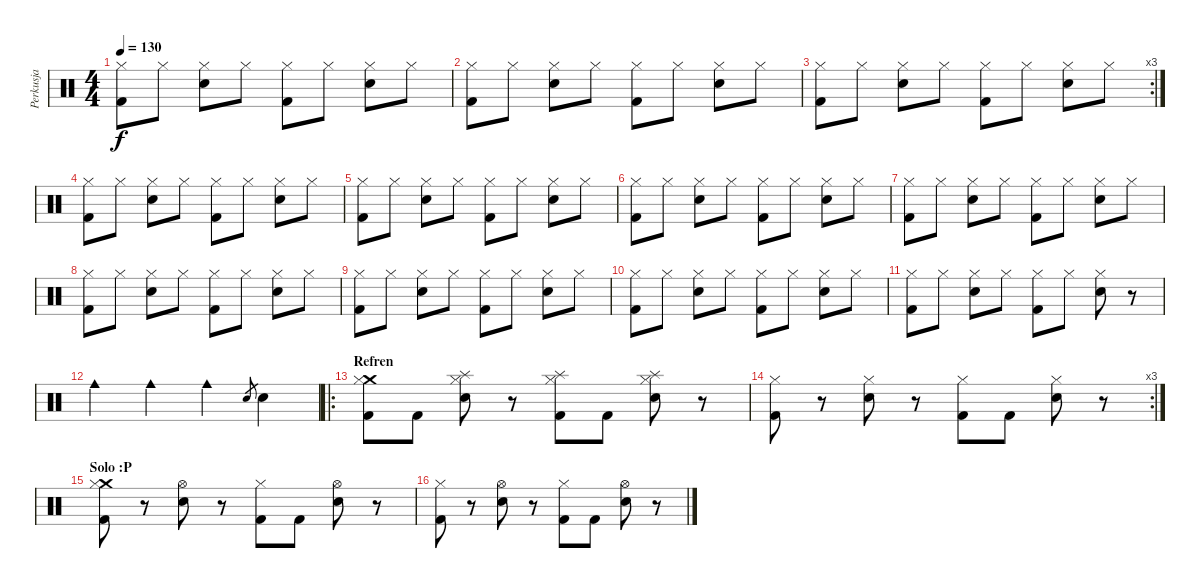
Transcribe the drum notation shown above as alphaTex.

\track ("Perkusja" "Perkusja") {instrument percussion}
\staff {score}
\articulation defaults
\ts (4 4)
\tempo 130
\clef neutral
\ks c
("Hi-Hat (closed)" "Kick (hit) 2").8{dy f} "Hi-Hat (closed)".8 ("Hi-Hat (closed)" "Electric Snare (hit)").8 "Hi-Hat (closed)".8 ("Hi-Hat (closed)" "Kick (hit) 2").8 "Hi-Hat (closed)".8 ("Hi-Hat (closed)" "Electric Snare (hit)").8 "Hi-Hat (closed)".8 |
("Hi-Hat (closed)" "Kick (hit) 2").8 "Hi-Hat (closed)".8 ("Hi-Hat (closed)" "Electric Snare (hit)").8 "Hi-Hat (closed)".8 ("Hi-Hat (closed)" "Kick (hit) 2").8 "Hi-Hat (closed)".8 ("Hi-Hat (closed)" "Electric Snare (hit)").8 "Hi-Hat (closed)".8 |
\rc 3
("Hi-Hat (closed)" "Kick (hit) 2").8 "Hi-Hat (closed)".8 ("Hi-Hat (closed)" "Electric Snare (hit)").8 "Hi-Hat (closed)".8 ("Hi-Hat (closed)" "Kick (hit) 2").8 "Hi-Hat (closed)".8 ("Hi-Hat (closed)" "Electric Snare (hit)").8 "Hi-Hat (closed)".8 |
("Hi-Hat (closed)" "Kick (hit) 2").8 "Hi-Hat (closed)".8 ("Hi-Hat (closed)" "Electric Snare (hit)").8 "Hi-Hat (closed)".8 ("Hi-Hat (closed)" "Kick (hit) 2").8 "Hi-Hat (closed)".8 ("Hi-Hat (closed)" "Electric Snare (hit)").8 "Hi-Hat (closed)".8 |
("Hi-Hat (closed)" "Kick (hit) 2").8 "Hi-Hat (closed)".8 ("Hi-Hat (closed)" "Electric Snare (hit)").8 "Hi-Hat (closed)".8 ("Hi-Hat (closed)" "Kick (hit) 2").8 "Hi-Hat (closed)".8 ("Hi-Hat (closed)" "Electric Snare (hit)").8 "Hi-Hat (closed)".8 |
("Hi-Hat (closed)" "Kick (hit) 2").8 "Hi-Hat (closed)".8 ("Hi-Hat (closed)" "Electric Snare (hit)").8 "Hi-Hat (closed)".8 ("Hi-Hat (closed)" "Kick (hit) 2").8 "Hi-Hat (closed)".8 ("Hi-Hat (closed)" "Electric Snare (hit)").8 "Hi-Hat (closed)".8 |
("Hi-Hat (closed)" "Kick (hit) 2").8 "Hi-Hat (closed)".8 ("Hi-Hat (closed)" "Electric Snare (hit)").8 "Hi-Hat (closed)".8 ("Hi-Hat (closed)" "Kick (hit) 2").8 "Hi-Hat (closed)".8 ("Hi-Hat (closed)" "Electric Snare (hit)").8 "Hi-Hat (closed)".8 |
("Hi-Hat (closed)" "Kick (hit) 2").8 "Hi-Hat (closed)".8 ("Hi-Hat (closed)" "Electric Snare (hit)").8 "Hi-Hat (closed)".8 ("Hi-Hat (closed)" "Kick (hit) 2").8 "Hi-Hat (closed)".8 ("Hi-Hat (closed)" "Electric Snare (hit)").8 "Hi-Hat (closed)".8 |
("Hi-Hat (closed)" "Kick (hit) 2").8 "Hi-Hat (closed)".8 ("Hi-Hat (closed)" "Electric Snare (hit)").8 "Hi-Hat (closed)".8 ("Hi-Hat (closed)" "Kick (hit) 2").8 "Hi-Hat (closed)".8 ("Hi-Hat (closed)" "Electric Snare (hit)").8 "Hi-Hat (closed)".8 |
("Hi-Hat (closed)" "Kick (hit) 2").8 "Hi-Hat (closed)".8 ("Hi-Hat (closed)" "Electric Snare (hit)").8 "Hi-Hat (closed)".8 ("Hi-Hat (closed)" "Kick (hit) 2").8 "Hi-Hat (closed)".8 ("Hi-Hat (closed)" "Electric Snare (hit)").8 "Hi-Hat (closed)".8 |
("Hi-Hat (closed)" "Kick (hit) 2").8 "Hi-Hat (closed)".8 ("Hi-Hat (closed)" "Electric Snare (hit)").8 "Hi-Hat (closed)".8 ("Hi-Hat (closed)" "Kick (hit) 2").8 "Hi-Hat (closed)".8 ("Hi-Hat (closed)" "Electric Snare (hit)").8 r.8 |
"Cowbell medium (hit)".4 "Cowbell medium (hit)".4 "Cowbell medium (hit)".4 "Electric Snare (hit)".8{gr} "Electric Snare (hit)".4 |
\ro
\section ("" "Refren")
("Crash medium (hit)" "Hi-Hat (closed)" "Kick (hit) 2").8 "Kick (hit) 2".8 ("Splash (hit)" "Hi-Hat (closed)" "Electric Snare (hit)").8 r.8 ("Splash (hit)" "Hi-Hat (closed)" "Kick (hit) 2").8 "Kick (hit) 2".8 ("Splash (hit)" "Hi-Hat (closed)" "Electric Snare (hit)").8 r.8 |
\rc 3
("Hi-Hat (closed)" "Kick (hit) 2").8 r.8 ("Hi-Hat (closed)" "Electric Snare (hit)").8 r.8 ("Hi-Hat (closed)" "Kick (hit) 2").8 "Kick (hit) 2".8 ("Hi-Hat (closed)" "Electric Snare (hit)").8 r.8 |
\section ("" "Solo :P")
("Crash medium (hit)" "Hi-Hat (closed)" "Kick (hit) 2").8 r.8 ("Hi-Hat (open)" "Electric Snare (hit)").8 r.8 ("Hi-Hat (closed)" "Kick (hit) 2").8 "Kick (hit) 2".8 ("Hi-Hat (open)" "Electric Snare (hit)").8 r.8 |
("Hi-Hat (closed)" "Kick (hit) 2").8 r.8 ("Hi-Hat (open)" "Electric Snare (hit)").8 r.8 ("Hi-Hat (closed)" "Kick (hit) 2").8 "Kick (hit) 2".8 ("Hi-Hat (open)" "Electric Snare (hit)").8 r.8
